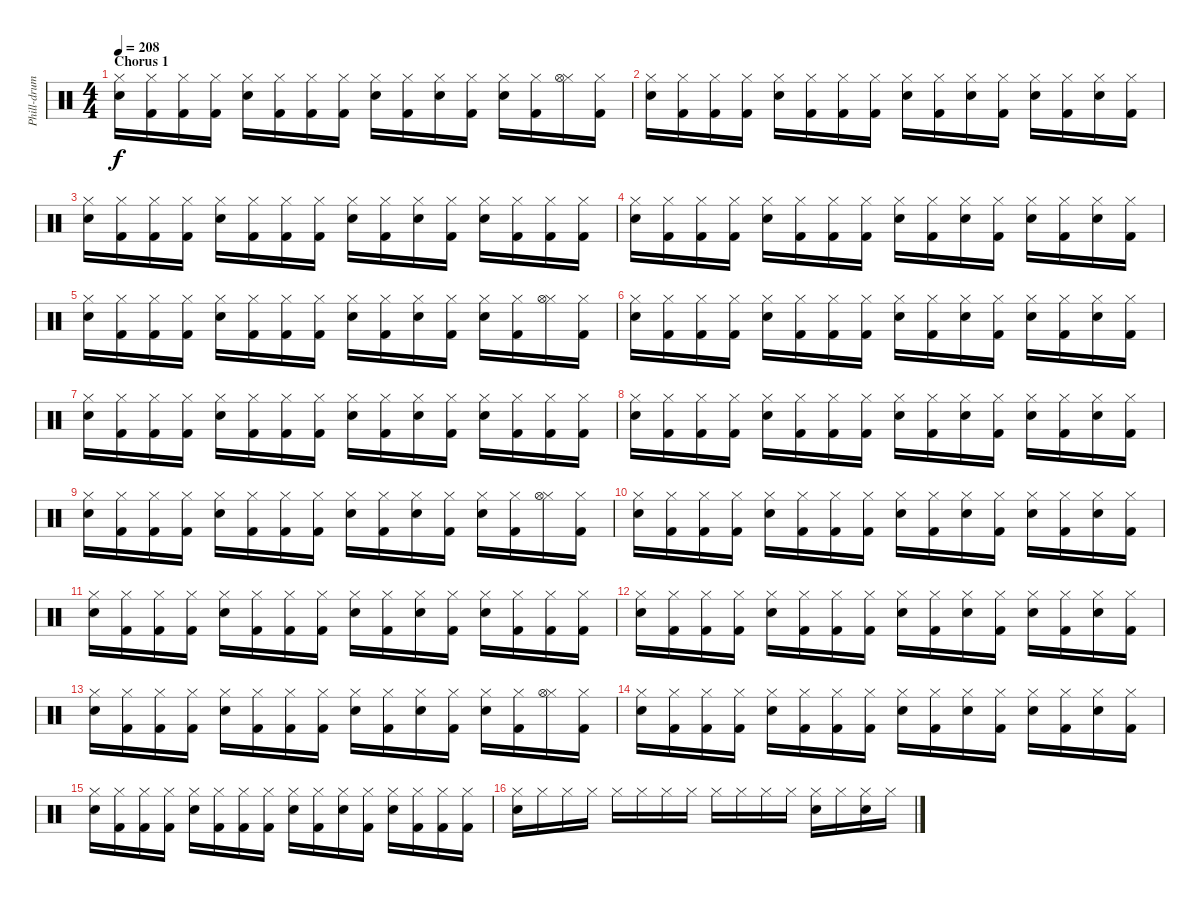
\track ("Phill-drum" "Phill-drum") {instrument percussion}
\staff {score}
\articulation defaults
\ts (4 4)
\section ("" "Chorus 1")
\tempo 208
\clef neutral
\ks c
("Hi-Hat (closed)" "Electric Snare (hit)").16{dy f} ("Hi-Hat (closed)" "Kick (hit) 2").16 ("Hi-Hat (closed)" "Kick (hit) 2").16 ("Hi-Hat (closed)" "Kick (hit) 2").16 ("Hi-Hat (closed)" "Electric Snare (hit)").16 ("Hi-Hat (closed)" "Kick (hit) 2").16 ("Hi-Hat (closed)" "Kick (hit) 2").16 ("Hi-Hat (closed)" "Kick (hit) 2").16 ("Hi-Hat (closed)" "Electric Snare (hit)").16 ("Hi-Hat (closed)" "Kick (hit) 2").16 ("Hi-Hat (closed)" "Electric Snare (hit)").16 ("Hi-Hat (closed)" "Kick (hit) 2").16 ("Hi-Hat (closed)" "Electric Snare (hit)").16 ("Hi-Hat (closed)" "Kick (hit) 2").16 ("Hi-Hat (closed)" "Hi-Hat (open)").16 ("Hi-Hat (closed)" "Kick (hit) 2").16 |
("Hi-Hat (closed)" "Electric Snare (hit)").16 ("Hi-Hat (closed)" "Kick (hit) 2").16 ("Hi-Hat (closed)" "Kick (hit) 2").16 ("Hi-Hat (closed)" "Kick (hit) 2").16 ("Hi-Hat (closed)" "Electric Snare (hit)").16 ("Hi-Hat (closed)" "Kick (hit) 2").16 ("Hi-Hat (closed)" "Kick (hit) 2").16 ("Hi-Hat (closed)" "Kick (hit) 2").16 ("Hi-Hat (closed)" "Electric Snare (hit)").16 ("Hi-Hat (closed)" "Kick (hit) 2").16 ("Hi-Hat (closed)" "Electric Snare (hit)").16 ("Hi-Hat (closed)" "Kick (hit) 2").16 ("Hi-Hat (closed)" "Electric Snare (hit)").16 ("Hi-Hat (closed)" "Kick (hit) 2").16 ("Hi-Hat (closed)" "Electric Snare (hit)").16 ("Hi-Hat (closed)" "Kick (hit) 2").16 |
("Hi-Hat (closed)" "Electric Snare (hit)").16 ("Hi-Hat (closed)" "Kick (hit) 2").16 ("Hi-Hat (closed)" "Kick (hit) 2").16 ("Hi-Hat (closed)" "Kick (hit) 2").16 ("Hi-Hat (closed)" "Electric Snare (hit)").16 ("Hi-Hat (closed)" "Kick (hit) 2").16 ("Hi-Hat (closed)" "Kick (hit) 2").16 ("Hi-Hat (closed)" "Kick (hit) 2").16 ("Hi-Hat (closed)" "Electric Snare (hit)").16 ("Hi-Hat (closed)" "Kick (hit) 2").16 ("Hi-Hat (closed)" "Electric Snare (hit)").16 ("Hi-Hat (closed)" "Kick (hit) 2").16 ("Hi-Hat (closed)" "Electric Snare (hit)").16 ("Hi-Hat (closed)" "Kick (hit) 2").16 ("Hi-Hat (closed)" "Kick (hit) 2").16 ("Hi-Hat (closed)" "Kick (hit) 2").16 |
("Hi-Hat (closed)" "Electric Snare (hit)").16 ("Hi-Hat (closed)" "Kick (hit) 2").16 ("Hi-Hat (closed)" "Kick (hit) 2").16 ("Hi-Hat (closed)" "Kick (hit) 2").16 ("Hi-Hat (closed)" "Electric Snare (hit)").16 ("Hi-Hat (closed)" "Kick (hit) 2").16 ("Hi-Hat (closed)" "Kick (hit) 2").16 ("Hi-Hat (closed)" "Kick (hit) 2").16 ("Hi-Hat (closed)" "Electric Snare (hit)").16 ("Hi-Hat (closed)" "Kick (hit) 2").16 ("Hi-Hat (closed)" "Electric Snare (hit)").16 ("Hi-Hat (closed)" "Kick (hit) 2").16 ("Hi-Hat (closed)" "Electric Snare (hit)").16 ("Hi-Hat (closed)" "Kick (hit) 2").16 ("Hi-Hat (closed)" "Electric Snare (hit)").16 ("Hi-Hat (closed)" "Kick (hit) 2").16 |
("Hi-Hat (closed)" "Electric Snare (hit)").16 ("Hi-Hat (closed)" "Kick (hit) 2").16 ("Hi-Hat (closed)" "Kick (hit) 2").16 ("Hi-Hat (closed)" "Kick (hit) 2").16 ("Hi-Hat (closed)" "Electric Snare (hit)").16 ("Hi-Hat (closed)" "Kick (hit) 2").16 ("Hi-Hat (closed)" "Kick (hit) 2").16 ("Hi-Hat (closed)" "Kick (hit) 2").16 ("Hi-Hat (closed)" "Electric Snare (hit)").16 ("Hi-Hat (closed)" "Kick (hit) 2").16 ("Hi-Hat (closed)" "Electric Snare (hit)").16 ("Hi-Hat (closed)" "Kick (hit) 2").16 ("Hi-Hat (closed)" "Electric Snare (hit)").16 ("Hi-Hat (closed)" "Kick (hit) 2").16 ("Hi-Hat (closed)" "Hi-Hat (open)").16 ("Hi-Hat (closed)" "Kick (hit) 2").16 |
("Hi-Hat (closed)" "Electric Snare (hit)").16 ("Hi-Hat (closed)" "Kick (hit) 2").16 ("Hi-Hat (closed)" "Kick (hit) 2").16 ("Hi-Hat (closed)" "Kick (hit) 2").16 ("Hi-Hat (closed)" "Electric Snare (hit)").16 ("Hi-Hat (closed)" "Kick (hit) 2").16 ("Hi-Hat (closed)" "Kick (hit) 2").16 ("Hi-Hat (closed)" "Kick (hit) 2").16 ("Hi-Hat (closed)" "Electric Snare (hit)").16 ("Hi-Hat (closed)" "Kick (hit) 2").16 ("Hi-Hat (closed)" "Electric Snare (hit)").16 ("Hi-Hat (closed)" "Kick (hit) 2").16 ("Hi-Hat (closed)" "Electric Snare (hit)").16 ("Hi-Hat (closed)" "Kick (hit) 2").16 ("Hi-Hat (closed)" "Electric Snare (hit)").16 ("Hi-Hat (closed)" "Kick (hit) 2").16 |
("Hi-Hat (closed)" "Electric Snare (hit)").16 ("Hi-Hat (closed)" "Kick (hit) 2").16 ("Hi-Hat (closed)" "Kick (hit) 2").16 ("Hi-Hat (closed)" "Kick (hit) 2").16 ("Hi-Hat (closed)" "Electric Snare (hit)").16 ("Hi-Hat (closed)" "Kick (hit) 2").16 ("Hi-Hat (closed)" "Kick (hit) 2").16 ("Hi-Hat (closed)" "Kick (hit) 2").16 ("Hi-Hat (closed)" "Electric Snare (hit)").16 ("Hi-Hat (closed)" "Kick (hit) 2").16 ("Hi-Hat (closed)" "Electric Snare (hit)").16 ("Hi-Hat (closed)" "Kick (hit) 2").16 ("Hi-Hat (closed)" "Electric Snare (hit)").16 ("Hi-Hat (closed)" "Kick (hit) 2").16 ("Hi-Hat (closed)" "Kick (hit) 2").16 ("Hi-Hat (closed)" "Kick (hit) 2").16 |
("Hi-Hat (closed)" "Electric Snare (hit)").16 ("Hi-Hat (closed)" "Kick (hit) 2").16 ("Hi-Hat (closed)" "Kick (hit) 2").16 ("Hi-Hat (closed)" "Kick (hit) 2").16 ("Hi-Hat (closed)" "Electric Snare (hit)").16 ("Hi-Hat (closed)" "Kick (hit) 2").16 ("Hi-Hat (closed)" "Kick (hit) 2").16 ("Hi-Hat (closed)" "Kick (hit) 2").16 ("Hi-Hat (closed)" "Electric Snare (hit)").16 ("Hi-Hat (closed)" "Kick (hit) 2").16 ("Hi-Hat (closed)" "Electric Snare (hit)").16 ("Hi-Hat (closed)" "Kick (hit) 2").16 ("Hi-Hat (closed)" "Electric Snare (hit)").16 ("Hi-Hat (closed)" "Kick (hit) 2").16 ("Hi-Hat (closed)" "Electric Snare (hit)").16 ("Hi-Hat (closed)" "Kick (hit) 2").16 |
("Hi-Hat (closed)" "Electric Snare (hit)").16 ("Hi-Hat (closed)" "Kick (hit) 2").16 ("Hi-Hat (closed)" "Kick (hit) 2").16 ("Hi-Hat (closed)" "Kick (hit) 2").16 ("Hi-Hat (closed)" "Electric Snare (hit)").16 ("Hi-Hat (closed)" "Kick (hit) 2").16 ("Hi-Hat (closed)" "Kick (hit) 2").16 ("Hi-Hat (closed)" "Kick (hit) 2").16 ("Hi-Hat (closed)" "Electric Snare (hit)").16 ("Hi-Hat (closed)" "Kick (hit) 2").16 ("Hi-Hat (closed)" "Electric Snare (hit)").16 ("Hi-Hat (closed)" "Kick (hit) 2").16 ("Hi-Hat (closed)" "Electric Snare (hit)").16 ("Hi-Hat (closed)" "Kick (hit) 2").16 ("Hi-Hat (closed)" "Hi-Hat (open)").16 ("Hi-Hat (closed)" "Kick (hit) 2").16 |
("Hi-Hat (closed)" "Electric Snare (hit)").16 ("Hi-Hat (closed)" "Kick (hit) 2").16 ("Hi-Hat (closed)" "Kick (hit) 2").16 ("Hi-Hat (closed)" "Kick (hit) 2").16 ("Hi-Hat (closed)" "Electric Snare (hit)").16 ("Hi-Hat (closed)" "Kick (hit) 2").16 ("Hi-Hat (closed)" "Kick (hit) 2").16 ("Hi-Hat (closed)" "Kick (hit) 2").16 ("Hi-Hat (closed)" "Electric Snare (hit)").16 ("Hi-Hat (closed)" "Kick (hit) 2").16 ("Hi-Hat (closed)" "Electric Snare (hit)").16 ("Hi-Hat (closed)" "Kick (hit) 2").16 ("Hi-Hat (closed)" "Electric Snare (hit)").16 ("Hi-Hat (closed)" "Kick (hit) 2").16 ("Hi-Hat (closed)" "Electric Snare (hit)").16 ("Hi-Hat (closed)" "Kick (hit) 2").16 |
("Hi-Hat (closed)" "Electric Snare (hit)").16 ("Hi-Hat (closed)" "Kick (hit) 2").16 ("Hi-Hat (closed)" "Kick (hit) 2").16 ("Hi-Hat (closed)" "Kick (hit) 2").16 ("Hi-Hat (closed)" "Electric Snare (hit)").16 ("Hi-Hat (closed)" "Kick (hit) 2").16 ("Hi-Hat (closed)" "Kick (hit) 2").16 ("Hi-Hat (closed)" "Kick (hit) 2").16 ("Hi-Hat (closed)" "Electric Snare (hit)").16 ("Hi-Hat (closed)" "Kick (hit) 2").16 ("Hi-Hat (closed)" "Electric Snare (hit)").16 ("Hi-Hat (closed)" "Kick (hit) 2").16 ("Hi-Hat (closed)" "Electric Snare (hit)").16 ("Hi-Hat (closed)" "Kick (hit) 2").16 ("Hi-Hat (closed)" "Kick (hit) 2").16 ("Hi-Hat (closed)" "Kick (hit) 2").16 |
("Hi-Hat (closed)" "Electric Snare (hit)").16 ("Hi-Hat (closed)" "Kick (hit) 2").16 ("Hi-Hat (closed)" "Kick (hit) 2").16 ("Hi-Hat (closed)" "Kick (hit) 2").16 ("Hi-Hat (closed)" "Electric Snare (hit)").16 ("Hi-Hat (closed)" "Kick (hit) 2").16 ("Hi-Hat (closed)" "Kick (hit) 2").16 ("Hi-Hat (closed)" "Kick (hit) 2").16 ("Hi-Hat (closed)" "Electric Snare (hit)").16 ("Hi-Hat (closed)" "Kick (hit) 2").16 ("Hi-Hat (closed)" "Electric Snare (hit)").16 ("Hi-Hat (closed)" "Kick (hit) 2").16 ("Hi-Hat (closed)" "Electric Snare (hit)").16 ("Hi-Hat (closed)" "Kick (hit) 2").16 ("Hi-Hat (closed)" "Electric Snare (hit)").16 ("Hi-Hat (closed)" "Kick (hit) 2").16 |
("Hi-Hat (closed)" "Electric Snare (hit)").16 ("Hi-Hat (closed)" "Kick (hit) 2").16 ("Hi-Hat (closed)" "Kick (hit) 2").16 ("Hi-Hat (closed)" "Kick (hit) 2").16 ("Hi-Hat (closed)" "Electric Snare (hit)").16 ("Hi-Hat (closed)" "Kick (hit) 2").16 ("Hi-Hat (closed)" "Kick (hit) 2").16 ("Hi-Hat (closed)" "Kick (hit) 2").16 ("Hi-Hat (closed)" "Electric Snare (hit)").16 ("Hi-Hat (closed)" "Kick (hit) 2").16 ("Hi-Hat (closed)" "Electric Snare (hit)").16 ("Hi-Hat (closed)" "Kick (hit) 2").16 ("Hi-Hat (closed)" "Electric Snare (hit)").16 ("Hi-Hat (closed)" "Kick (hit) 2").16 ("Hi-Hat (closed)" "Hi-Hat (open)").16 ("Hi-Hat (closed)" "Kick (hit) 2").16 |
("Hi-Hat (closed)" "Electric Snare (hit)").16 ("Hi-Hat (closed)" "Kick (hit) 2").16 ("Hi-Hat (closed)" "Kick (hit) 2").16 ("Hi-Hat (closed)" "Kick (hit) 2").16 ("Hi-Hat (closed)" "Electric Snare (hit)").16 ("Hi-Hat (closed)" "Kick (hit) 2").16 ("Hi-Hat (closed)" "Kick (hit) 2").16 ("Hi-Hat (closed)" "Kick (hit) 2").16 ("Hi-Hat (closed)" "Electric Snare (hit)").16 ("Hi-Hat (closed)" "Kick (hit) 2").16 ("Hi-Hat (closed)" "Electric Snare (hit)").16 ("Hi-Hat (closed)" "Kick (hit) 2").16 ("Hi-Hat (closed)" "Electric Snare (hit)").16 ("Hi-Hat (closed)" "Kick (hit) 2").16 ("Hi-Hat (closed)" "Electric Snare (hit)").16 ("Hi-Hat (closed)" "Kick (hit) 2").16 |
("Hi-Hat (closed)" "Electric Snare (hit)").16 ("Hi-Hat (closed)" "Kick (hit) 2").16 ("Hi-Hat (closed)" "Kick (hit) 2").16 ("Hi-Hat (closed)" "Kick (hit) 2").16 ("Hi-Hat (closed)" "Electric Snare (hit)").16 ("Hi-Hat (closed)" "Kick (hit) 2").16 ("Hi-Hat (closed)" "Kick (hit) 2").16 ("Hi-Hat (closed)" "Kick (hit) 2").16 ("Hi-Hat (closed)" "Electric Snare (hit)").16 ("Hi-Hat (closed)" "Kick (hit) 2").16 ("Hi-Hat (closed)" "Electric Snare (hit)").16 ("Hi-Hat (closed)" "Kick (hit) 2").16 ("Hi-Hat (closed)" "Electric Snare (hit)").16 ("Hi-Hat (closed)" "Kick (hit) 2").16 ("Hi-Hat (closed)" "Kick (hit) 2").16 ("Hi-Hat (closed)" "Kick (hit) 2").16 |
("Hi-Hat (closed)" "Electric Snare (hit)").16 "Hi-Hat (closed)".16 "Hi-Hat (closed)".16 "Hi-Hat (closed)".16 "Hi-Hat (closed)".16 "Hi-Hat (closed)".16 "Hi-Hat (closed)".16 "Hi-Hat (closed)".16 "Hi-Hat (closed)".16 "Hi-Hat (closed)".16 "Hi-Hat (closed)".16 "Hi-Hat (closed)".16 ("Hi-Hat (closed)" "Electric Snare (hit)").16 "Hi-Hat (closed)".16 ("Hi-Hat (closed)" "Electric Snare (hit)").16 "Hi-Hat (closed)".16
